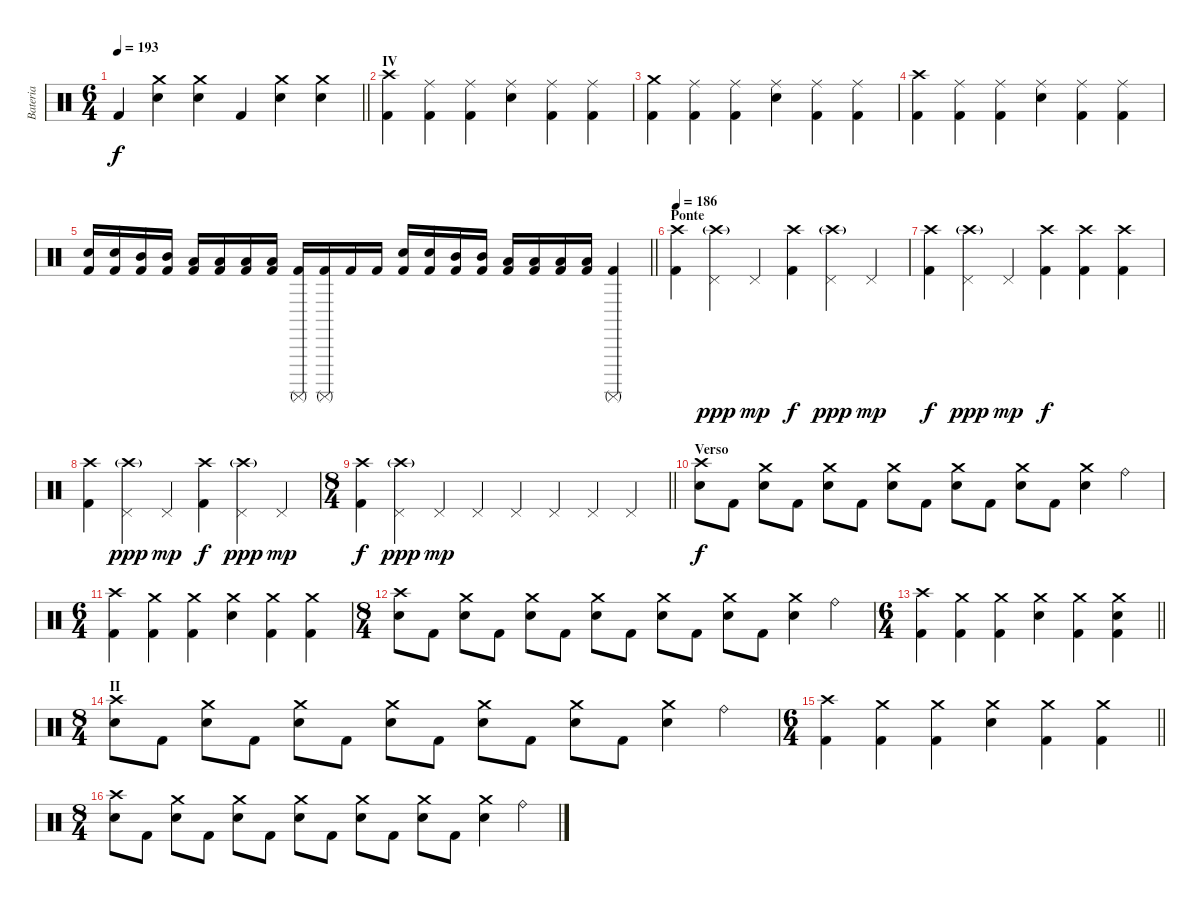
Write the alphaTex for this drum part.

\track ("Bateria" "Bateria") {instrument percussion}
\staff {score}
\articulation defaults
\ts (6 4)
\tempo 193
\clef neutral
\barLineRight lightlight
\ks c "Kick (hit) 2".4{dy f}
("Electric Snare (hit)" "Crash medium (hit)").4 ("Electric Snare (hit)" "Crash medium (hit)").4 "Kick (hit) 2".4 ("Electric Snare (hit)" "Crash medium (hit)").4 ("Electric Snare (hit)" "Crash medium (hit)").4 |
\section ("" "IV")
("Kick (hit) 2" "Crash high (hit)").4 ("Kick (hit) 2" "Ride (middle)").4 ("Kick (hit) 2" "Ride (middle)").4 ("Electric Snare (hit)" "Ride (middle)").4 ("Kick (hit) 2" "Ride (middle)").4 ("Kick (hit) 2" "Ride (middle)").4 |
("Kick (hit) 2" "Crash medium (hit)").4 ("Kick (hit) 2" "Ride (middle)").4 ("Kick (hit) 2" "Ride (middle)").4 ("Electric Snare (hit)" "Ride (middle)").4 ("Kick (hit) 2" "Ride (middle)").4 ("Kick (hit) 2" "Ride (middle)").4 |
("Kick (hit) 2" "Crash high (hit)").4 ("Kick (hit) 2" "Ride (middle)").4 ("Kick (hit) 2" "Ride (middle)").4 ("Electric Snare (hit)" "Ride (middle)").4 ("Kick (hit) 2" "Ride (middle)").4 ("Kick (hit) 2" "Ride (middle)").4 |
\barLineRight lightlight
("Kick (hit) 2" "Electric Snare (hit)").16 ("Kick (hit) 2" "Electric Snare (hit)").16 ("Kick (hit) 2" "Mid Tom (hit)").16 ("Kick (hit) 2" "Mid Tom (hit)").16 ("Kick (hit) 2" "Low Tom (hit)").16 ("Kick (hit) 2" "Low Tom (hit)").16 ("Kick (hit) 2" "Low Floor Tom (hit)").16 ("Kick (hit) 2" "Low Floor Tom (hit)").16 ("Kick (hit) 2" "Surdo (mute)").16 ("Kick (hit) 2" "Surdo (mute)").16 "Kick (hit) 2".16 "Kick (hit) 2".16 ("Kick (hit) 2" "Electric Snare (hit)").16 ("Kick (hit) 2" "Electric Snare (hit)").16 ("Kick (hit) 2" "Mid Tom (hit)").16 ("Kick (hit) 2" "Mid Tom (hit)").16 ("Kick (hit) 2" "Low Tom (hit)").16 ("Kick (hit) 2" "Low Tom (hit)").16 ("Kick (hit) 2" "Low Floor Tom (hit)").16 ("Kick (hit) 2" "Low Floor Tom (hit)").16 ("Kick (hit) 2" "Surdo (mute)").4 |
\section ("" "Ponte")
\tempo 186
("Kick (hit) 2" "Crash high (hit)").4 ("Pedal Hi-Hat (hit)" "Crash high (hit)"{g}).4{dy ppp} "Pedal Hi-Hat (hit)".4{dy mp} ("Kick (hit) 2" "Crash high (hit)").4{dy f} ("Pedal Hi-Hat (hit)" "Crash high (hit)"{g}).4{dy ppp} "Pedal Hi-Hat (hit)".4{dy mp} |
("Kick (hit) 2" "Crash high (hit)").4{dy f} ("Pedal Hi-Hat (hit)" "Crash high (hit)"{g}).4{dy ppp} "Pedal Hi-Hat (hit)".4{dy mp} ("Kick (hit) 2" "Crash high (hit)").4{dy f} ("Kick (hit) 2" "Crash high (hit)").4 ("Kick (hit) 2" "Crash high (hit)").4 |
("Kick (hit) 2" "Crash high (hit)").4 ("Pedal Hi-Hat (hit)" "Crash high (hit)"{g}).4{dy ppp} "Pedal Hi-Hat (hit)".4{dy mp} ("Kick (hit) 2" "Crash high (hit)").4{dy f} ("Pedal Hi-Hat (hit)" "Crash high (hit)"{g}).4{dy ppp} "Pedal Hi-Hat (hit)".4{dy mp} |
\ts (8 4)
\barLineRight lightlight
("Kick (hit) 2" "Crash high (hit)").4{dy f} ("Pedal Hi-Hat (hit)" "Crash high (hit)"{g}).4{dy ppp} "Pedal Hi-Hat (hit)".4{dy mp} "Pedal Hi-Hat (hit)".4 "Pedal Hi-Hat (hit)".4 "Pedal Hi-Hat (hit)".4 "Pedal Hi-Hat (hit)".4 "Pedal Hi-Hat (hit)".4 |
\section ("" "Verso")
("Electric Snare (hit)" "Crash high (hit)").8{dy f} "Kick (hit) 2".8 ("Electric Snare (hit)" "Crash medium (hit)").8 "Kick (hit) 2".8 ("Electric Snare (hit)" "Crash medium (hit)").8 "Kick (hit) 2".8 ("Electric Snare (hit)" "Crash medium (hit)").8 "Kick (hit) 2".8 ("Electric Snare (hit)" "Crash medium (hit)").8 "Kick (hit) 2".8 ("Electric Snare (hit)" "Crash medium (hit)").8 "Kick (hit) 2".8 ("Electric Snare (hit)" "Crash medium (hit)").4 "Ride (bell)".4 |
\ts (6 4)
("Kick (hit) 2" "Crash high (hit)").4 ("Kick (hit) 2" "Crash medium (hit)").4 ("Kick (hit) 2" "Crash medium (hit)").4 ("Electric Snare (hit)" "Crash medium (hit)").4 ("Kick (hit) 2" "Crash medium (hit)").4 ("Kick (hit) 2" "Crash medium (hit)").4 |
\ts (8 4)
("Electric Snare (hit)" "Crash high (hit)").8 "Kick (hit) 2".8 ("Electric Snare (hit)" "Crash medium (hit)").8 "Kick (hit) 2".8 ("Electric Snare (hit)" "Crash medium (hit)").8 "Kick (hit) 2".8 ("Electric Snare (hit)" "Crash medium (hit)").8 "Kick (hit) 2".8 ("Electric Snare (hit)" "Crash medium (hit)").8 "Kick (hit) 2".8 ("Electric Snare (hit)" "Crash medium (hit)").8 "Kick (hit) 2".8 ("Electric Snare (hit)" "Crash medium (hit)").4 "Ride (bell)".4 |
\ts (6 4)
\barLineRight lightlight
("Kick (hit) 2" "Crash high (hit)").4 ("Kick (hit) 2" "Crash medium (hit)").4 ("Kick (hit) 2" "Crash medium (hit)").4 ("Electric Snare (hit)" "Crash medium (hit)").4 ("Kick (hit) 2" "Crash medium (hit)").4 ("Kick (hit) 2" "Electric Snare (hit)" "Crash medium (hit)").4 |
\ts (8 4)
\section ("" "II")
("Electric Snare (hit)" "Crash high (hit)").8 "Kick (hit) 2".8 ("Electric Snare (hit)" "Crash medium (hit)").8 "Kick (hit) 2".8 ("Electric Snare (hit)" "Crash medium (hit)").8 "Kick (hit) 2".8 ("Electric Snare (hit)" "Crash medium (hit)").8 "Kick (hit) 2".8 ("Electric Snare (hit)" "Crash medium (hit)").8 "Kick (hit) 2".8 ("Electric Snare (hit)" "Crash medium (hit)").8 "Kick (hit) 2".8 ("Electric Snare (hit)" "Crash medium (hit)").4 "Ride (bell)".4 |
\ts (6 4)
\barLineRight lightlight
("Kick (hit) 2" "Crash high (hit)").4 ("Kick (hit) 2" "Crash medium (hit)").4 ("Kick (hit) 2" "Crash medium (hit)").4 ("Electric Snare (hit)" "Crash medium (hit)").4 ("Kick (hit) 2" "Crash medium (hit)").4 ("Kick (hit) 2" "Crash medium (hit)").4 |
\ts (8 4)
("Electric Snare (hit)" "Crash high (hit)").8 "Kick (hit) 2".8 ("Electric Snare (hit)" "Crash medium (hit)").8 "Kick (hit) 2".8 ("Electric Snare (hit)" "Crash medium (hit)").8 "Kick (hit) 2".8 ("Electric Snare (hit)" "Crash medium (hit)").8 "Kick (hit) 2".8 ("Electric Snare (hit)" "Crash medium (hit)").8 "Kick (hit) 2".8 ("Electric Snare (hit)" "Crash medium (hit)").8 "Kick (hit) 2".8 ("Electric Snare (hit)" "Crash medium (hit)").4 "Ride (bell)".4
